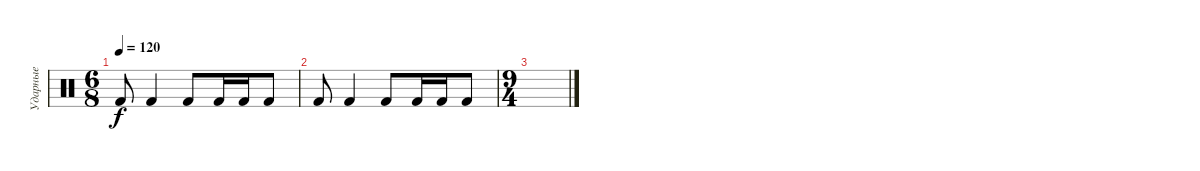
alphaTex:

\track ("Ударные" "Ударные") {instrument percussion}
\staff {score}
\articulation defaults
\ts (6 8)
\tempo 120
\clef neutral
\ks c "Kick (hit) 2".8{dy f} "Kick (hit) 2".4 "Kick (hit) 2".8 "Kick (hit) 2".16 "Kick (hit) 2".16 "Kick (hit) 2".8
|
"Kick (hit) 2".8 "Kick (hit) 2".4 "Kick (hit) 2".8 "Kick (hit) 2".16 "Kick (hit) 2".16 "Kick (hit) 2".8 |
\ts (9 4)
